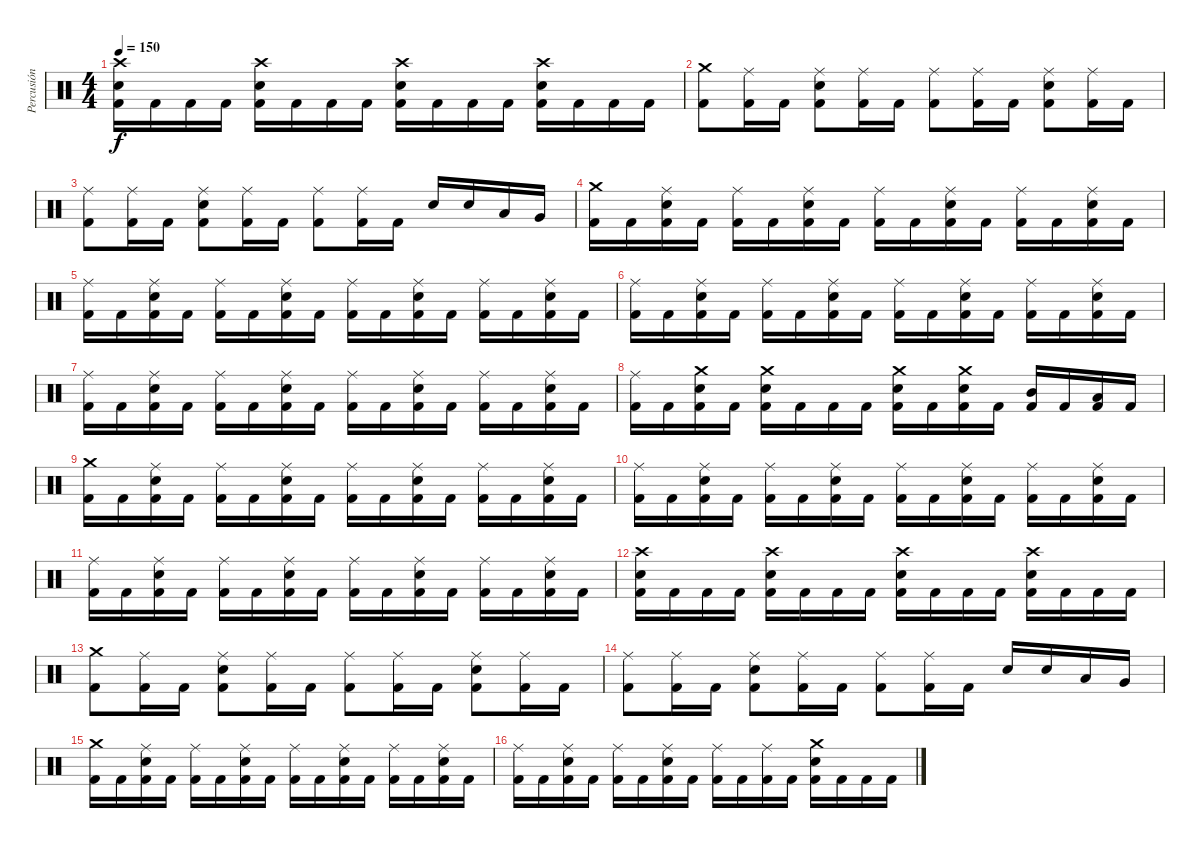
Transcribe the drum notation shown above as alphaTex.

\track ("Percusión" "Percusión") {instrument percussion}
\staff {score}
\articulation defaults
\ts (4 4)
\tempo 150
\clef neutral
\ks c
("Crash high (hit)" "Kick (hit) 2" "Snare (hit) 2").16{dy f} "Kick (hit) 2".16 "Kick (hit) 2".16 "Kick (hit) 2".16 ("Crash high (hit)" "Kick (hit) 2" "Snare (hit) 2").16 "Kick (hit) 2".16 "Kick (hit) 2".16 "Kick (hit) 2".16 ("Crash high (hit)" "Kick (hit) 2" "Snare (hit) 2").16 "Kick (hit) 2".16 "Kick (hit) 2".16 "Kick (hit) 2".16 ("Crash high (hit)" "Kick (hit) 2" "Snare (hit) 2").16 "Kick (hit) 2".16 "Kick (hit) 2".16 "Kick (hit) 2".16 |
("Crash medium (hit)" "Kick (hit) 2").8 ("Ride (middle)" "Kick (hit) 2").16 "Kick (hit) 2".16 ("Ride (middle)" "Kick (hit) 2" "Snare (hit) 2").8 ("Ride (middle)" "Kick (hit) 2").16 "Kick (hit) 2".16 ("Ride (middle)" "Kick (hit) 2").8 ("Ride (middle)" "Kick (hit) 2").16 "Kick (hit) 2".16 ("Ride (middle)" "Kick (hit) 2" "Snare (hit) 2").8 ("Ride (middle)" "Kick (hit) 2").16 "Kick (hit) 2".16 |
("Ride (middle)" "Kick (hit) 2").8 ("Ride (middle)" "Kick (hit) 2").16 "Kick (hit) 2".16 ("Ride (middle)" "Kick (hit) 2" "Snare (hit) 2").8 ("Ride (middle)" "Kick (hit) 2").16 "Kick (hit) 2".16 ("Ride (middle)" "Kick (hit) 2").8 ("Ride (middle)" "Kick (hit) 2").16 "Kick (hit) 2".16 "Snare (hit) 2".16 "Snare (hit) 2".16 "Low Tom (hit)".16 "Very Low Tom (hit)".16 |
("Crash medium (hit)" "Kick (hit) 2").16 "Kick (hit) 2".16 ("Ride (middle)" "Kick (hit) 2" "Snare (hit) 2").16 "Kick (hit) 2".16 ("Ride (middle)" "Kick (hit) 2").16 "Kick (hit) 2".16 ("Ride (middle)" "Kick (hit) 2" "Snare (hit) 2").16 "Kick (hit) 2".16 ("Ride (middle)" "Kick (hit) 2").16 "Kick (hit) 2".16 ("Ride (middle)" "Kick (hit) 2" "Snare (hit) 2").16 "Kick (hit) 2".16 ("Ride (middle)" "Kick (hit) 2").16 "Kick (hit) 2".16 ("Ride (middle)" "Kick (hit) 2" "Snare (hit) 2").16 "Kick (hit) 2".16 |
("Ride (middle)" "Kick (hit) 2").16 "Kick (hit) 2".16 ("Ride (middle)" "Kick (hit) 2" "Snare (hit) 2").16 "Kick (hit) 2".16 ("Ride (middle)" "Kick (hit) 2").16 "Kick (hit) 2".16 ("Ride (middle)" "Kick (hit) 2" "Snare (hit) 2").16 "Kick (hit) 2".16 ("Ride (middle)" "Kick (hit) 2").16 "Kick (hit) 2".16 ("Ride (middle)" "Kick (hit) 2" "Snare (hit) 2").16 "Kick (hit) 2".16 ("Ride (middle)" "Kick (hit) 2").16 "Kick (hit) 2".16 ("Ride (middle)" "Kick (hit) 2" "Snare (hit) 2").16 "Kick (hit) 2".16 |
("Ride (middle)" "Kick (hit) 2").16 "Kick (hit) 2".16 ("Ride (middle)" "Kick (hit) 2" "Snare (hit) 2").16 "Kick (hit) 2".16 ("Ride (middle)" "Kick (hit) 2").16 "Kick (hit) 2".16 ("Ride (middle)" "Kick (hit) 2" "Snare (hit) 2").16 "Kick (hit) 2".16 ("Ride (middle)" "Kick (hit) 2").16 "Kick (hit) 2".16 ("Ride (middle)" "Kick (hit) 2" "Snare (hit) 2").16 "Kick (hit) 2".16 ("Ride (middle)" "Kick (hit) 2").16 "Kick (hit) 2".16 ("Ride (middle)" "Kick (hit) 2" "Snare (hit) 2").16 "Kick (hit) 2".16 |
("Ride (middle)" "Kick (hit) 2").16 "Kick (hit) 2".16 ("Ride (middle)" "Kick (hit) 2" "Snare (hit) 2").16 "Kick (hit) 2".16 ("Ride (middle)" "Kick (hit) 2").16 "Kick (hit) 2".16 ("Ride (middle)" "Kick (hit) 2" "Snare (hit) 2").16 "Kick (hit) 2".16 ("Ride (middle)" "Kick (hit) 2").16 "Kick (hit) 2".16 ("Ride (middle)" "Kick (hit) 2" "Snare (hit) 2").16 "Kick (hit) 2".16 ("Ride (middle)" "Kick (hit) 2").16 "Kick (hit) 2".16 ("Ride (middle)" "Kick (hit) 2" "Snare (hit) 2").16 "Kick (hit) 2".16 |
("Ride (middle)" "Kick (hit) 2").16 "Kick (hit) 2".16 ("Crash medium (hit)" "Kick (hit) 2" "Snare (hit) 2").16 "Kick (hit) 2".16 ("Crash medium (hit)" "Kick (hit) 2" "Snare (hit) 2").16 "Kick (hit) 2".16 "Kick (hit) 2".16 "Kick (hit) 2".16 ("Crash medium (hit)" "Kick (hit) 2" "Snare (hit) 2").16 "Kick (hit) 2".16 ("Crash medium (hit)" "Kick (hit) 2" "Snare (hit) 2").16 "Kick (hit) 2".16 ("Kick (hit) 2" "Mid Tom (hit)").16 "Kick (hit) 2".16 ("Kick (hit) 2" "Low Tom (hit)").16 "Kick (hit) 2".16 |
("Crash medium (hit)" "Kick (hit) 2").16 "Kick (hit) 2".16 ("Ride (middle)" "Kick (hit) 2" "Snare (hit) 2").16 "Kick (hit) 2".16 ("Ride (middle)" "Kick (hit) 2").16 "Kick (hit) 2".16 ("Ride (middle)" "Kick (hit) 2" "Snare (hit) 2").16 "Kick (hit) 2".16 ("Ride (middle)" "Kick (hit) 2").16 "Kick (hit) 2".16 ("Ride (middle)" "Kick (hit) 2" "Snare (hit) 2").16 "Kick (hit) 2".16 ("Ride (middle)" "Kick (hit) 2").16 "Kick (hit) 2".16 ("Ride (middle)" "Kick (hit) 2" "Snare (hit) 2").16 "Kick (hit) 2".16 |
("Ride (middle)" "Kick (hit) 2").16 "Kick (hit) 2".16 ("Ride (middle)" "Kick (hit) 2" "Snare (hit) 2").16 "Kick (hit) 2".16 ("Ride (middle)" "Kick (hit) 2").16 "Kick (hit) 2".16 ("Ride (middle)" "Kick (hit) 2" "Snare (hit) 2").16 "Kick (hit) 2".16 ("Ride (middle)" "Kick (hit) 2").16 "Kick (hit) 2".16 ("Ride (middle)" "Kick (hit) 2" "Snare (hit) 2").16 "Kick (hit) 2".16 ("Ride (middle)" "Kick (hit) 2").16 "Kick (hit) 2".16 ("Ride (middle)" "Kick (hit) 2" "Snare (hit) 2").16 "Kick (hit) 2".16 |
("Ride (middle)" "Kick (hit) 2").16 "Kick (hit) 2".16 ("Ride (middle)" "Kick (hit) 2" "Snare (hit) 2").16 "Kick (hit) 2".16 ("Ride (middle)" "Kick (hit) 2").16 "Kick (hit) 2".16 ("Ride (middle)" "Kick (hit) 2" "Snare (hit) 2").16 "Kick (hit) 2".16 ("Ride (middle)" "Kick (hit) 2").16 "Kick (hit) 2".16 ("Ride (middle)" "Kick (hit) 2" "Snare (hit) 2").16 "Kick (hit) 2".16 ("Ride (middle)" "Kick (hit) 2").16 "Kick (hit) 2".16 ("Ride (middle)" "Kick (hit) 2" "Snare (hit) 2").16 "Kick (hit) 2".16 |
("Crash high (hit)" "Kick (hit) 2" "Snare (hit) 2").16 "Kick (hit) 2".16 "Kick (hit) 2".16 "Kick (hit) 2".16 ("Crash high (hit)" "Kick (hit) 2" "Snare (hit) 2").16 "Kick (hit) 2".16 "Kick (hit) 2".16 "Kick (hit) 2".16 ("Crash high (hit)" "Kick (hit) 2" "Snare (hit) 2").16 "Kick (hit) 2".16 "Kick (hit) 2".16 "Kick (hit) 2".16 ("Crash high (hit)" "Kick (hit) 2" "Snare (hit) 2").16 "Kick (hit) 2".16 "Kick (hit) 2".16 "Kick (hit) 2".16 |
("Crash medium (hit)" "Kick (hit) 2").8 ("Ride (middle)" "Kick (hit) 2").16 "Kick (hit) 2".16 ("Ride (middle)" "Kick (hit) 2" "Snare (hit) 2").8 ("Ride (middle)" "Kick (hit) 2").16 "Kick (hit) 2".16 ("Ride (middle)" "Kick (hit) 2").8 ("Ride (middle)" "Kick (hit) 2").16 "Kick (hit) 2".16 ("Ride (middle)" "Kick (hit) 2" "Snare (hit) 2").8 ("Ride (middle)" "Kick (hit) 2").16 "Kick (hit) 2".16 |
("Ride (middle)" "Kick (hit) 2").8 ("Ride (middle)" "Kick (hit) 2").16 "Kick (hit) 2".16 ("Ride (middle)" "Kick (hit) 2" "Snare (hit) 2").8 ("Ride (middle)" "Kick (hit) 2").16 "Kick (hit) 2".16 ("Ride (middle)" "Kick (hit) 2").8 ("Ride (middle)" "Kick (hit) 2").16 "Kick (hit) 2".16 "Snare (hit) 2".16 "Snare (hit) 2".16 "Low Tom (hit)".16 "Very Low Tom (hit)".16 |
("Crash medium (hit)" "Kick (hit) 2").16 "Kick (hit) 2".16 ("Ride (middle)" "Kick (hit) 2" "Snare (hit) 2").16 "Kick (hit) 2".16 ("Ride (middle)" "Kick (hit) 2").16 "Kick (hit) 2".16 ("Ride (middle)" "Kick (hit) 2" "Snare (hit) 2").16 "Kick (hit) 2".16 ("Ride (middle)" "Kick (hit) 2").16 "Kick (hit) 2".16 ("Ride (middle)" "Kick (hit) 2" "Snare (hit) 2").16 "Kick (hit) 2".16 ("Ride (middle)" "Kick (hit) 2").16 "Kick (hit) 2".16 ("Ride (middle)" "Kick (hit) 2" "Snare (hit) 2").16 "Kick (hit) 2".16 |
("Ride (middle)" "Kick (hit) 2").16 "Kick (hit) 2".16 ("Ride (middle)" "Kick (hit) 2" "Snare (hit) 2").16 "Kick (hit) 2".16 ("Ride (middle)" "Kick (hit) 2").16 "Kick (hit) 2".16 ("Ride (middle)" "Kick (hit) 2" "Snare (hit) 2").16 "Kick (hit) 2".16 ("Ride (middle)" "Kick (hit) 2").16 "Kick (hit) 2".16 ("Ride (middle)" "Kick (hit) 2").16 "Kick (hit) 2".16 ("Crash medium (hit)" "Kick (hit) 2" "Snare (hit) 2").16 "Kick (hit) 2".16 "Kick (hit) 2".16 "Kick (hit) 2".16
